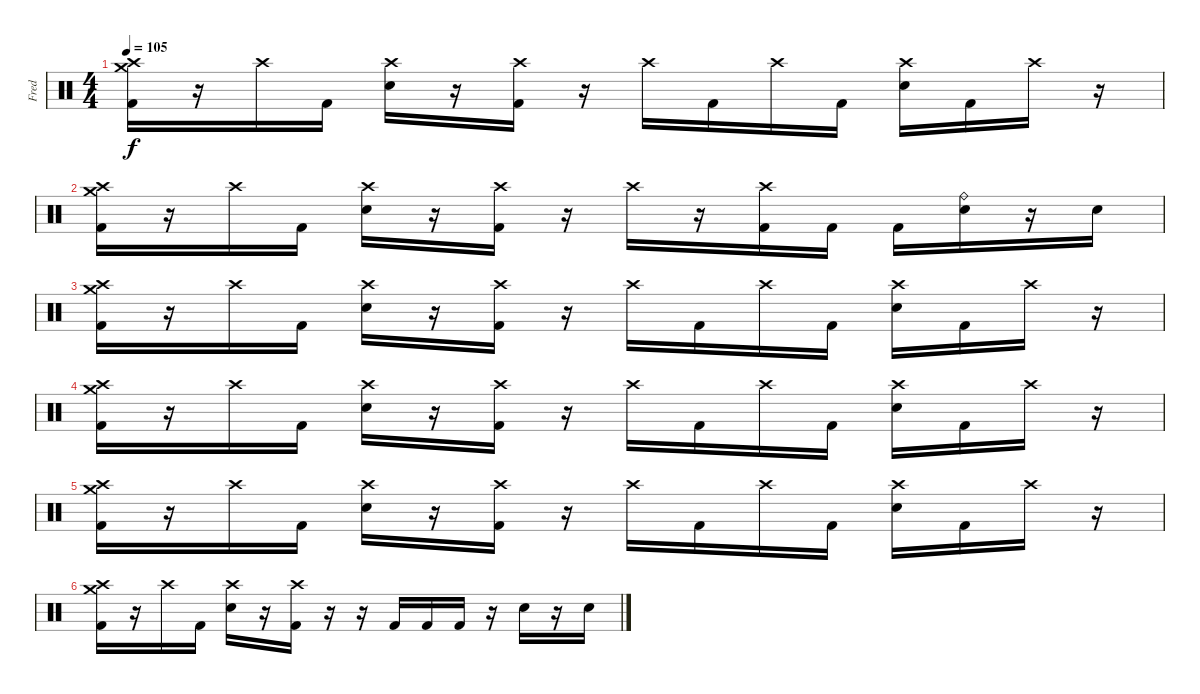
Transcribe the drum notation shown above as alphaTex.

\track ("Fred" "Fred") {instrument percussion}
\staff {score}
\articulation defaults
\ts (4 4)
\tempo 105
\clef neutral
\ks c
("Crash high (hit)" "Crash medium (hit)" "Kick (hit) 2").16{dy f} r.16 "Crash high (hit)".16 "Kick (hit) 2".16 ("Crash high (hit)" "Electric Snare (hit)").16 r.16 ("Crash high (hit)" "Kick (hit) 2").16 r.16 "Crash high (hit)".16 "Kick (hit) 2".16 "Crash high (hit)".16 "Kick (hit) 2".16 ("Crash high (hit)" "Electric Snare (hit)").16 "Kick (hit) 2".16 "Crash high (hit)".16 r.16 |
("Crash high (hit)" "Crash medium (hit)" "Kick (hit) 2").16 r.16 "Crash high (hit)".16 "Kick (hit) 2".16 ("Crash high (hit)" "Electric Snare (hit)").16 r.16 ("Crash high (hit)" "Kick (hit) 2").16 r.16 "Crash high (hit)".16 r.16 ("Crash high (hit)" "Kick (hit) 2").16 "Kick (hit) 2".16 "Kick (hit) 2".16 ("Ride (bell)" "Electric Snare (hit)").16 r.16 "Electric Snare (hit)".16 |
("Crash high (hit)" "Crash medium (hit)" "Kick (hit) 2").16 r.16 "Crash high (hit)".16 "Kick (hit) 2".16 ("Crash high (hit)" "Electric Snare (hit)").16 r.16 ("Crash high (hit)" "Kick (hit) 2").16 r.16 "Crash high (hit)".16 "Kick (hit) 2".16 "Crash high (hit)".16 "Kick (hit) 2".16 ("Crash high (hit)" "Electric Snare (hit)").16 "Kick (hit) 2".16 "Crash high (hit)".16 r.16 |
("Crash high (hit)" "Crash medium (hit)" "Kick (hit) 2").16 r.16 "Crash high (hit)".16 "Kick (hit) 2".16 ("Crash high (hit)" "Electric Snare (hit)").16 r.16 ("Crash high (hit)" "Kick (hit) 2").16 r.16 "Crash high (hit)".16 "Kick (hit) 2".16 "Crash high (hit)".16 "Kick (hit) 2".16 ("Crash high (hit)" "Electric Snare (hit)").16 "Kick (hit) 2".16 "Crash high (hit)".16 r.16 |
("Crash high (hit)" "Crash medium (hit)" "Kick (hit) 2").16 r.16 "Crash high (hit)".16 "Kick (hit) 2".16 ("Crash high (hit)" "Electric Snare (hit)").16 r.16 ("Crash high (hit)" "Kick (hit) 2").16 r.16 "Crash high (hit)".16 "Kick (hit) 2".16 "Crash high (hit)".16 "Kick (hit) 2".16 ("Crash high (hit)" "Electric Snare (hit)").16 "Kick (hit) 2".16 "Crash high (hit)".16 r.16 |
("Crash high (hit)" "Crash medium (hit)" "Kick (hit) 2").16 r.16 "Crash high (hit)".16 "Kick (hit) 2".16 ("Crash high (hit)" "Electric Snare (hit)").16 r.16 ("Crash high (hit)" "Kick (hit) 2").16 r.16 r.16 "Kick (hit) 2".16 "Kick (hit) 2".16 "Kick (hit) 2".16 r.16 "Electric Snare (hit)".16 r.16 "Electric Snare (hit)".16
